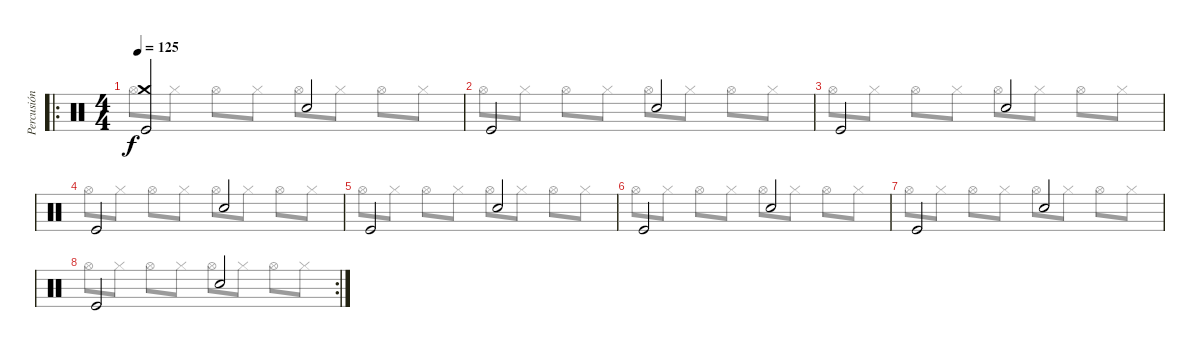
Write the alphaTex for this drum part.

\track ("Percusión" "Percusión") {instrument percussion}
\staff {score}
\articulation defaults
\voice
\ro
\ts (4 4)
\tempo 125
\clef neutral
\ks c
("Crash medium (hit)" "Kick (hit)").2{dy f} "Electric Snare (hit)".2 |
"Kick (hit)".2 "Electric Snare (hit)".2 |
"Kick (hit)".2 "Electric Snare (hit)".2 |
"Kick (hit)".2 "Electric Snare (hit)".2 |
"Kick (hit)".2 "Electric Snare (hit)".2 |
"Kick (hit)".2 "Electric Snare (hit)".2 |
"Kick (hit)".2 "Electric Snare (hit)".2 |
\rc 2 "Kick (hit)".2 "Electric Snare (hit)".2
\voice
\clef neutral
\ottava regular
\simile none
\ks c "Hi-Hat (open)".8{dy f} "Hi-Hat (closed)".8 "Hi-Hat (open)".8 "Hi-Hat (closed)".8 "Hi-Hat (open)".8 "Hi-Hat (closed)".8 "Hi-Hat (open)".8 "Hi-Hat (closed)".8
|
"Hi-Hat (open)".8 "Hi-Hat (closed)".8 "Hi-Hat (open)".8 "Hi-Hat (closed)".8 "Hi-Hat (open)".8 "Hi-Hat (closed)".8 "Hi-Hat (open)".8 "Hi-Hat (closed)".8 |
"Hi-Hat (open)".8 "Hi-Hat (closed)".8 "Hi-Hat (open)".8 "Hi-Hat (closed)".8 "Hi-Hat (open)".8 "Hi-Hat (closed)".8 "Hi-Hat (open)".8 "Hi-Hat (closed)".8 |
"Hi-Hat (open)".8 "Hi-Hat (closed)".8 "Hi-Hat (open)".8 "Hi-Hat (closed)".8 "Hi-Hat (open)".8 "Hi-Hat (closed)".8 "Hi-Hat (open)".8 "Hi-Hat (closed)".8 |
"Hi-Hat (open)".8 "Hi-Hat (closed)".8 "Hi-Hat (open)".8 "Hi-Hat (closed)".8 "Hi-Hat (open)".8 "Hi-Hat (closed)".8 "Hi-Hat (open)".8 "Hi-Hat (closed)".8 |
"Hi-Hat (open)".8 "Hi-Hat (closed)".8 "Hi-Hat (open)".8 "Hi-Hat (closed)".8 "Hi-Hat (open)".8 "Hi-Hat (closed)".8 "Hi-Hat (open)".8 "Hi-Hat (closed)".8 |
"Hi-Hat (open)".8 "Hi-Hat (closed)".8 "Hi-Hat (open)".8 "Hi-Hat (closed)".8 "Hi-Hat (open)".8 "Hi-Hat (closed)".8 "Hi-Hat (open)".8 "Hi-Hat (closed)".8 |
"Hi-Hat (open)".8 "Hi-Hat (closed)".8 "Hi-Hat (open)".8 "Hi-Hat (closed)".8 "Hi-Hat (open)".8 "Hi-Hat (closed)".8 "Hi-Hat (open)".8 "Hi-Hat (closed)".8
